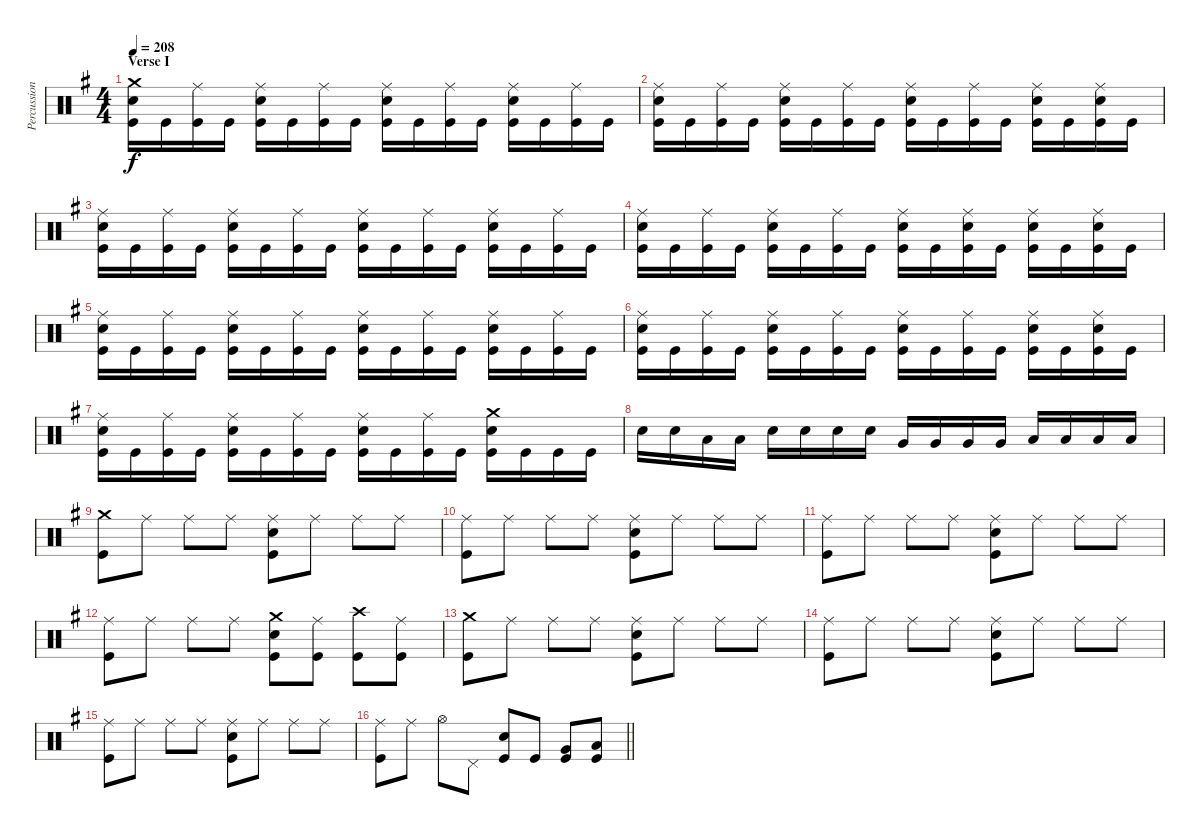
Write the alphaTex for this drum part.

\track ("Percussion" "Percussion") {instrument percussion}
\staff {score}
\articulation defaults
\ts (4 4)
\section ("" "Verse I")
\tempo 208
\clef neutral
\ks g
("Crash medium (hit)" "Electric Snare (hit)" "Kick (hit)").16{dy f} "Kick (hit)".16 ("Ride (middle)" "Kick (hit)").16 "Kick (hit)".16 ("Ride (middle)" "Electric Snare (hit)" "Kick (hit)").16 "Kick (hit)".16 ("Ride (middle)" "Kick (hit)").16 "Kick (hit)".16 ("Ride (middle)" "Electric Snare (hit)" "Kick (hit)").16 "Kick (hit)".16 ("Ride (middle)" "Kick (hit)").16 "Kick (hit)".16 ("Ride (middle)" "Electric Snare (hit)" "Kick (hit)").16 "Kick (hit)".16 ("Ride (middle)" "Kick (hit)").16 "Kick (hit)".16 |
("Ride (middle)" "Electric Snare (hit)" "Kick (hit)").16 "Kick (hit)".16 ("Ride (middle)" "Kick (hit)").16 "Kick (hit)".16 ("Ride (middle)" "Electric Snare (hit)" "Kick (hit)").16 "Kick (hit)".16 ("Ride (middle)" "Kick (hit)").16 "Kick (hit)".16 ("Ride (middle)" "Electric Snare (hit)" "Kick (hit)").16 "Kick (hit)".16 ("Ride (middle)" "Kick (hit)").16 "Kick (hit)".16 ("Ride (middle)" "Electric Snare (hit)" "Kick (hit)").16 "Kick (hit)".16 ("Ride (middle)" "Electric Snare (hit)" "Kick (hit)").16 "Kick (hit)".16 |
("Ride (middle)" "Electric Snare (hit)" "Kick (hit)").16 "Kick (hit)".16 ("Ride (middle)" "Kick (hit)").16 "Kick (hit)".16 ("Ride (middle)" "Electric Snare (hit)" "Kick (hit)").16 "Kick (hit)".16 ("Ride (middle)" "Kick (hit)").16 "Kick (hit)".16 ("Ride (middle)" "Electric Snare (hit)" "Kick (hit)").16 "Kick (hit)".16 ("Ride (middle)" "Kick (hit)").16 "Kick (hit)".16 ("Ride (middle)" "Electric Snare (hit)" "Kick (hit)").16 "Kick (hit)".16 ("Ride (middle)" "Kick (hit)").16 "Kick (hit)".16 |
("Ride (middle)" "Electric Snare (hit)" "Kick (hit)").16 "Kick (hit)".16 ("Ride (middle)" "Kick (hit)").16 "Kick (hit)".16 ("Ride (middle)" "Electric Snare (hit)" "Kick (hit)").16 "Kick (hit)".16 ("Ride (middle)" "Kick (hit)").16 "Kick (hit)".16 ("Ride (middle)" "Electric Snare (hit)" "Kick (hit)").16 "Kick (hit)".16 ("Ride (middle)" "Electric Snare (hit)" "Kick (hit)").16 "Kick (hit)".16 ("Ride (middle)" "Electric Snare (hit)" "Kick (hit)").16 "Kick (hit)".16 ("Ride (middle)" "Electric Snare (hit)" "Kick (hit)").16 "Kick (hit)".16 |
("Ride (middle)" "Electric Snare (hit)" "Kick (hit)").16 "Kick (hit)".16 ("Ride (middle)" "Kick (hit)").16 "Kick (hit)".16 ("Ride (middle)" "Electric Snare (hit)" "Kick (hit)").16 "Kick (hit)".16 ("Ride (middle)" "Kick (hit)").16 "Kick (hit)".16 ("Ride (middle)" "Electric Snare (hit)" "Kick (hit)").16 "Kick (hit)".16 ("Ride (middle)" "Kick (hit)").16 "Kick (hit)".16 ("Ride (middle)" "Electric Snare (hit)" "Kick (hit)").16 "Kick (hit)".16 ("Ride (middle)" "Kick (hit)").16 "Kick (hit)".16 |
("Ride (middle)" "Electric Snare (hit)" "Kick (hit)").16 "Kick (hit)".16 ("Ride (middle)" "Kick (hit)").16 "Kick (hit)".16 ("Ride (middle)" "Electric Snare (hit)" "Kick (hit)").16 "Kick (hit)".16 ("Ride (middle)" "Kick (hit)").16 "Kick (hit)".16 ("Ride (middle)" "Electric Snare (hit)" "Kick (hit)").16 "Kick (hit)".16 ("Ride (middle)" "Kick (hit)").16 "Kick (hit)".16 ("Ride (middle)" "Electric Snare (hit)" "Kick (hit)").16 "Kick (hit)".16 ("Ride (middle)" "Electric Snare (hit)" "Kick (hit)").16 "Kick (hit)".16 |
("Ride (middle)" "Electric Snare (hit)" "Kick (hit)").16 "Kick (hit)".16 ("Ride (middle)" "Kick (hit)").16 "Kick (hit)".16 ("Ride (middle)" "Electric Snare (hit)" "Kick (hit)").16 "Kick (hit)".16 ("Ride (middle)" "Kick (hit)").16 "Kick (hit)".16 ("Ride (middle)" "Electric Snare (hit)" "Kick (hit)").16 "Kick (hit)".16 ("Ride (middle)" "Kick (hit)").16 "Kick (hit)".16 ("Crash medium (hit)" "Electric Snare (hit)" "Kick (hit)").16 "Kick (hit)".16 "Kick (hit)".16 "Kick (hit)".16 |
"Electric Snare (hit)".16 "Electric Snare (hit)".16 "Low Tom (hit)".16 "Low Tom (hit)".16 "Electric Snare (hit)".16 "Electric Snare (hit)".16 "Electric Snare (hit)".16 "Electric Snare (hit)".16 "Very Low Tom (hit)".16 "Very Low Tom (hit)".16 "Very Low Tom (hit)".16 "Very Low Tom (hit)".16 "Low Floor Tom (hit)".16 "Low Floor Tom (hit)".16 "Low Floor Tom (hit)".16 "Low Floor Tom (hit)".16 |
("Crash medium (hit)" "Kick (hit)").8 "Ride (middle)".8 "Ride (middle)".8 "Ride (middle)".8 ("Ride (middle)" "Electric Snare (hit)" "Kick (hit)").8 "Ride (middle)".8 "Ride (middle)".8 "Ride (middle)".8 |
("Ride (middle)" "Kick (hit)").8 "Ride (middle)".8 "Ride (middle)".8 "Ride (middle)".8 ("Ride (middle)" "Electric Snare (hit)" "Kick (hit)").8 "Ride (middle)".8 "Ride (middle)".8 "Ride (middle)".8 |
("Ride (middle)" "Kick (hit)").8 "Ride (middle)".8 "Ride (middle)".8 "Ride (middle)".8 ("Ride (middle)" "Electric Snare (hit)" "Kick (hit)").8 "Ride (middle)".8 "Ride (middle)".8 "Ride (middle)".8 |
("Ride (middle)" "Kick (hit)").8 "Ride (middle)".8 "Ride (middle)".8 "Ride (middle)".8 ("Crash medium (hit)" "Electric Snare (hit)" "Kick (hit)").8 ("Ride (middle)" "Kick (hit)").8 ("Crash high (hit)" "Kick (hit)").8 ("Ride (middle)" "Kick (hit)").8 |
("Crash medium (hit)" "Kick (hit)").8 "Ride (middle)".8 "Ride (middle)".8 "Ride (middle)".8 ("Ride (middle)" "Electric Snare (hit)" "Kick (hit)").8 "Ride (middle)".8 "Ride (middle)".8 "Ride (middle)".8 |
("Ride (middle)" "Kick (hit)").8 "Ride (middle)".8 "Ride (middle)".8 "Ride (middle)".8 ("Ride (middle)" "Electric Snare (hit)" "Kick (hit)").8 "Ride (middle)".8 "Ride (middle)".8 "Ride (middle)".8 |
("Ride (middle)" "Kick (hit)").8 "Ride (middle)".8 "Ride (middle)".8 "Ride (middle)".8 ("Ride (middle)" "Electric Snare (hit)" "Kick (hit)").8 "Ride (middle)".8 "Ride (middle)".8 "Ride (middle)".8 |
\barLineRight lightlight
("Ride (middle)" "Kick (hit)").8 "Ride (middle)".8 "Hi-Hat (open)".8 "Pedal Hi-Hat (hit)".8 ("Electric Snare (hit)" "Kick (hit)").8 "Kick (hit)".8 ("Very Low Tom (hit)" "Kick (hit)").8 ("Low Floor Tom (hit)" "Kick (hit)").8
